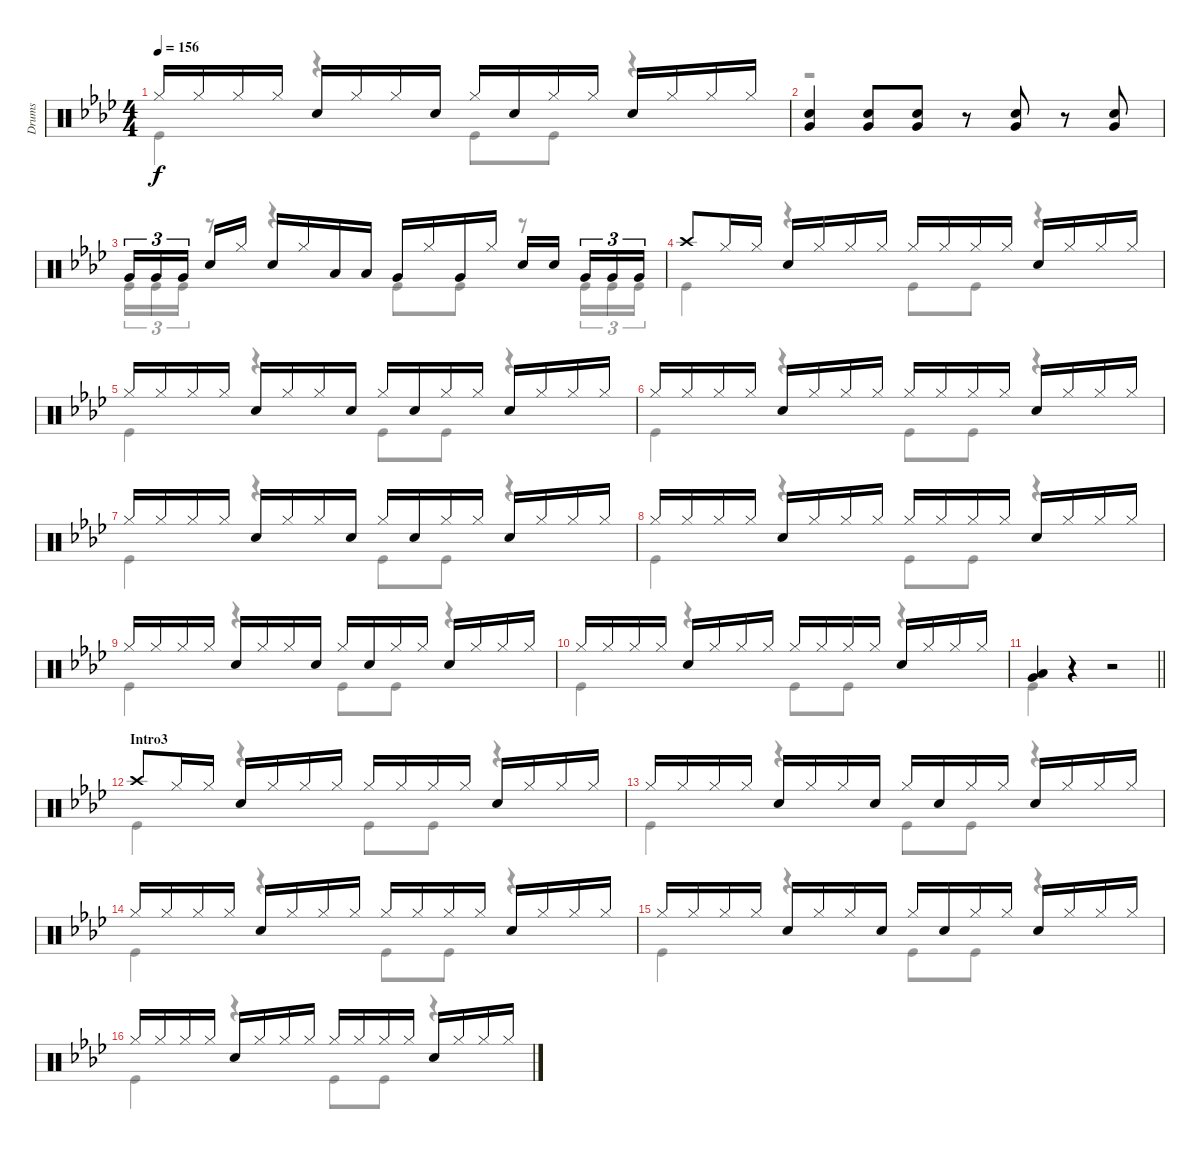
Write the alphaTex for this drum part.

\track ("Drums" "Drums") {instrument percussion}
\staff {score}
\articulation defaults
\voice
\ts (4 4)
\tempo 156
\clef neutral
\ks ab "Hi-Hat (closed)".16{dy f} "Hi-Hat (closed)".16 "Hi-Hat (closed)".16 "Hi-Hat (closed)".16 "Snare (hit) 2".16 "Hi-Hat (closed)".16 "Hi-Hat (closed)".16 "Snare (hit) 2".16 "Hi-Hat (closed)".16 "Snare (hit) 2".16 "Hi-Hat (closed)".16 "Hi-Hat (closed)".16 "Snare (hit) 2".16 "Hi-Hat (closed)".16 "Hi-Hat (closed)".16 "Hi-Hat (closed)".16
|
("Snare (hit) 2" "Very Low Tom (hit)").4 ("Snare (hit) 2" "Very Low Tom (hit)").8 ("Snare (hit) 2" "Very Low Tom (hit)").8 r.8 ("Snare (hit) 2" "Very Low Tom (hit)").8 r.8 ("Snare (hit) 2" "Very Low Tom (hit)").8 |
"Very Low Tom (hit)".16{tu (3 2)} "Very Low Tom (hit)".16{tu (3 2)} "Very Low Tom (hit)".16{tu (3 2) beam splitsecondary} "Snare (hit) 2".16 "Hi-Hat (closed)".16 "Snare (hit) 2".16 "Hi-Hat (closed)".16 "Low Tom (hit)".16 "Low Tom (hit)".16 "Very Low Tom (hit)".16 "Hi-Hat (closed)".16 "Very Low Tom (hit)".16 "Hi-Hat (closed)".16 "Snare (hit) 2".16 "Snare (hit) 2".16{beam splitsecondary} "Very Low Tom (hit)".16{tu (3 2)} "Very Low Tom (hit)".16{tu (3 2)} "Very Low Tom (hit)".16{tu (3 2)} |
"Crash high (hit)".8 "Hi-Hat (closed)".16 "Hi-Hat (closed)".16 "Snare (hit) 2".16 "Hi-Hat (closed)".16 "Hi-Hat (closed)".16 "Hi-Hat (closed)".16 "Hi-Hat (closed)".16 "Hi-Hat (closed)".16 "Hi-Hat (closed)".16 "Hi-Hat (closed)".16 "Snare (hit) 2".16 "Hi-Hat (closed)".16 "Hi-Hat (closed)".16 "Hi-Hat (closed)".16 |
"Hi-Hat (closed)".16 "Hi-Hat (closed)".16 "Hi-Hat (closed)".16 "Hi-Hat (closed)".16 "Snare (hit) 2".16 "Hi-Hat (closed)".16 "Hi-Hat (closed)".16 "Snare (hit) 2".16 "Hi-Hat (closed)".16 "Snare (hit) 2".16 "Hi-Hat (closed)".16 "Hi-Hat (closed)".16 "Snare (hit) 2".16 "Hi-Hat (closed)".16 "Hi-Hat (closed)".16 "Hi-Hat (closed)".16 |
"Hi-Hat (closed)".16 "Hi-Hat (closed)".16 "Hi-Hat (closed)".16 "Hi-Hat (closed)".16 "Snare (hit) 2".16 "Hi-Hat (closed)".16 "Hi-Hat (closed)".16 "Hi-Hat (closed)".16 "Hi-Hat (closed)".16 "Hi-Hat (closed)".16 "Hi-Hat (closed)".16 "Hi-Hat (closed)".16 "Snare (hit) 2".16 "Hi-Hat (closed)".16 "Hi-Hat (closed)".16 "Hi-Hat (closed)".16 |
"Hi-Hat (closed)".16 "Hi-Hat (closed)".16 "Hi-Hat (closed)".16 "Hi-Hat (closed)".16 "Snare (hit) 2".16 "Hi-Hat (closed)".16 "Hi-Hat (closed)".16 "Snare (hit) 2".16 "Hi-Hat (closed)".16 "Snare (hit) 2".16 "Hi-Hat (closed)".16 "Hi-Hat (closed)".16 "Snare (hit) 2".16 "Hi-Hat (closed)".16 "Hi-Hat (closed)".16 "Hi-Hat (closed)".16 |
"Hi-Hat (closed)".16 "Hi-Hat (closed)".16 "Hi-Hat (closed)".16 "Hi-Hat (closed)".16 "Snare (hit) 2".16 "Hi-Hat (closed)".16 "Hi-Hat (closed)".16 "Hi-Hat (closed)".16 "Hi-Hat (closed)".16 "Hi-Hat (closed)".16 "Hi-Hat (closed)".16 "Hi-Hat (closed)".16 "Snare (hit) 2".16 "Hi-Hat (closed)".16 "Hi-Hat (closed)".16 "Hi-Hat (closed)".16 |
"Hi-Hat (closed)".16 "Hi-Hat (closed)".16 "Hi-Hat (closed)".16 "Hi-Hat (closed)".16 "Snare (hit) 2".16 "Hi-Hat (closed)".16 "Hi-Hat (closed)".16 "Snare (hit) 2".16 "Hi-Hat (closed)".16 "Snare (hit) 2".16 "Hi-Hat (closed)".16 "Hi-Hat (closed)".16 "Snare (hit) 2".16 "Hi-Hat (closed)".16 "Hi-Hat (closed)".16 "Hi-Hat (closed)".16 |
"Hi-Hat (closed)".16 "Hi-Hat (closed)".16 "Hi-Hat (closed)".16 "Hi-Hat (closed)".16 "Snare (hit) 2".16 "Hi-Hat (closed)".16 "Hi-Hat (closed)".16 "Hi-Hat (closed)".16 "Hi-Hat (closed)".16 "Hi-Hat (closed)".16 "Hi-Hat (closed)".16 "Hi-Hat (closed)".16 "Snare (hit) 2".16 "Hi-Hat (closed)".16 "Hi-Hat (closed)".16 "Hi-Hat (closed)".16 |
\barLineRight lightlight
("Low Tom (hit)" "Very Low Tom (hit)").4 r.4 r.2 |
\section ("" "Intro3")
"Crash high (hit)".8 "Hi-Hat (closed)".16 "Hi-Hat (closed)".16 "Snare (hit) 2".16 "Hi-Hat (closed)".16 "Hi-Hat (closed)".16 "Hi-Hat (closed)".16 "Hi-Hat (closed)".16 "Hi-Hat (closed)".16 "Hi-Hat (closed)".16 "Hi-Hat (closed)".16 "Snare (hit) 2".16 "Hi-Hat (closed)".16 "Hi-Hat (closed)".16 "Hi-Hat (closed)".16 |
"Hi-Hat (closed)".16 "Hi-Hat (closed)".16 "Hi-Hat (closed)".16 "Hi-Hat (closed)".16 "Snare (hit) 2".16 "Hi-Hat (closed)".16 "Hi-Hat (closed)".16 "Snare (hit) 2".16 "Hi-Hat (closed)".16 "Snare (hit) 2".16 "Hi-Hat (closed)".16 "Hi-Hat (closed)".16 "Snare (hit) 2".16 "Hi-Hat (closed)".16 "Hi-Hat (closed)".16 "Hi-Hat (closed)".16 |
"Hi-Hat (closed)".16 "Hi-Hat (closed)".16 "Hi-Hat (closed)".16 "Hi-Hat (closed)".16 "Snare (hit) 2".16 "Hi-Hat (closed)".16 "Hi-Hat (closed)".16 "Hi-Hat (closed)".16 "Hi-Hat (closed)".16 "Hi-Hat (closed)".16 "Hi-Hat (closed)".16 "Hi-Hat (closed)".16 "Snare (hit) 2".16 "Hi-Hat (closed)".16 "Hi-Hat (closed)".16 "Hi-Hat (closed)".16 |
"Hi-Hat (closed)".16 "Hi-Hat (closed)".16 "Hi-Hat (closed)".16 "Hi-Hat (closed)".16 "Snare (hit) 2".16 "Hi-Hat (closed)".16 "Hi-Hat (closed)".16 "Snare (hit) 2".16 "Hi-Hat (closed)".16 "Snare (hit) 2".16 "Hi-Hat (closed)".16 "Hi-Hat (closed)".16 "Snare (hit) 2".16 "Hi-Hat (closed)".16 "Hi-Hat (closed)".16 "Hi-Hat (closed)".16 |
"Hi-Hat (closed)".16 "Hi-Hat (closed)".16 "Hi-Hat (closed)".16 "Hi-Hat (closed)".16 "Snare (hit) 2".16 "Hi-Hat (closed)".16 "Hi-Hat (closed)".16 "Hi-Hat (closed)".16 "Hi-Hat (closed)".16 "Hi-Hat (closed)".16 "Hi-Hat (closed)".16 "Hi-Hat (closed)".16 "Snare (hit) 2".16 "Hi-Hat (closed)".16 "Hi-Hat (closed)".16 "Hi-Hat (closed)".16
\voice
\clef neutral
\ottava regular
\simile none
\ks ab "Kick (hit)".4{dy f}
r.4 "Kick (hit)".8 "Kick (hit)".8 r.4 |
r.1 |
"Kick (hit)".16{tu (3 2)} "Kick (hit)".16{tu (3 2)} "Kick (hit)".16{tu (3 2)} r.8 r.4 "Kick (hit)".8 "Kick (hit)".8 r.8 "Kick (hit)".16{tu (3 2)} "Kick (hit)".16{tu (3 2)} "Kick (hit)".16{tu (3 2)} |
"Kick (hit)".4 r.4 "Kick (hit)".8 "Kick (hit)".8 r.4 |
"Kick (hit)".4 r.4 "Kick (hit)".8 "Kick (hit)".8 r.4 |
"Kick (hit)".4 r.4 "Kick (hit)".8 "Kick (hit)".8 r.4 |
"Kick (hit)".4 r.4 "Kick (hit)".8 "Kick (hit)".8 r.4 |
"Kick (hit)".4 r.4 "Kick (hit)".8 "Kick (hit)".8 r.4 |
"Kick (hit)".4 r.4 "Kick (hit)".8 "Kick (hit)".8 r.4 |
"Kick (hit)".4 r.4 "Kick (hit)".8 "Kick (hit)".8 r.4 |
\barLineRight lightlight "Kick (hit)".4
r.4 r.2 |
"Kick (hit)".4 r.4 "Kick (hit)".8 "Kick (hit)".8 r.4 |
"Kick (hit)".4 r.4 "Kick (hit)".8 "Kick (hit)".8 r.4 |
"Kick (hit)".4 r.4 "Kick (hit)".8 "Kick (hit)".8 r.4 |
"Kick (hit)".4 r.4 "Kick (hit)".8 "Kick (hit)".8 r.4 |
"Kick (hit)".4 r.4 "Kick (hit)".8 "Kick (hit)".8 r.4
